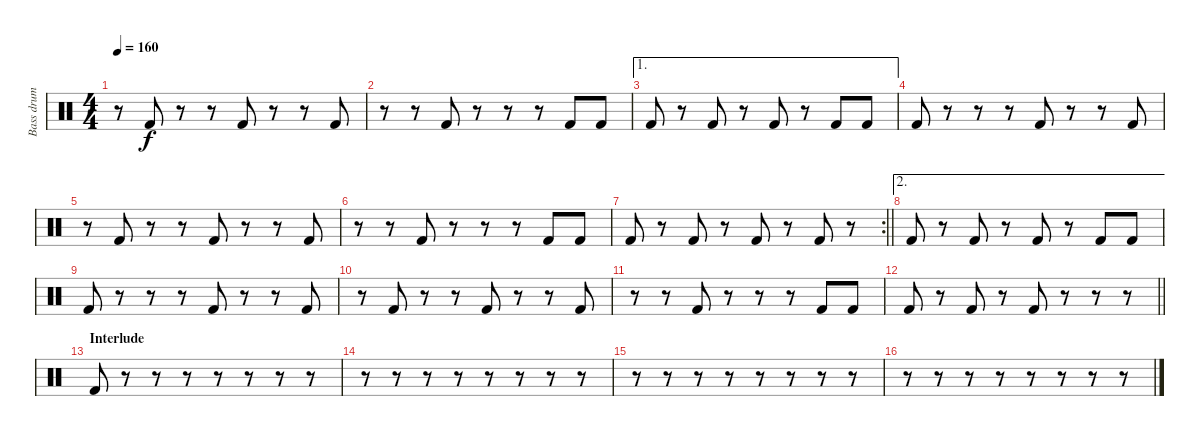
\track ("Bass drum" "Bass drum") {instrument percussion}
\staff {score}
\articulation defaults
\ts (4 4)
\tempo 160
\clef neutral
\ks c
r.8{dy f} "Kick (hit) 2".8 r.8 r.8 "Kick (hit) 2".8 r.8 r.8 "Kick (hit) 2".8 |
r.8 r.8 "Kick (hit) 2".8 r.8 r.8 r.8 "Kick (hit) 2".8 "Kick (hit) 2".8 |
\ae 1 "Kick (hit) 2".8
r.8 "Kick (hit) 2".8 r.8 "Kick (hit) 2".8 r.8 "Kick (hit) 2".8 "Kick (hit) 2".8 |
"Kick (hit) 2".8 r.8 r.8 r.8 "Kick (hit) 2".8 r.8 r.8 "Kick (hit) 2".8 |
r.8 "Kick (hit) 2".8 r.8 r.8 "Kick (hit) 2".8 r.8 r.8 "Kick (hit) 2".8 |
r.8 r.8 "Kick (hit) 2".8 r.8 r.8 r.8 "Kick (hit) 2".8 "Kick (hit) 2".8 |
\rc 2
\barLineRight lightlight "Kick (hit) 2".8
r.8 "Kick (hit) 2".8 r.8 "Kick (hit) 2".8 r.8 "Kick (hit) 2".8 r.8 |
\ae 2 "Kick (hit) 2".8
r.8 "Kick (hit) 2".8 r.8 "Kick (hit) 2".8 r.8 "Kick (hit) 2".8 "Kick (hit) 2".8 |
"Kick (hit) 2".8 r.8 r.8 r.8 "Kick (hit) 2".8 r.8 r.8 "Kick (hit) 2".8 |
r.8 "Kick (hit) 2".8 r.8 r.8 "Kick (hit) 2".8 r.8 r.8 "Kick (hit) 2".8 |
r.8 r.8 "Kick (hit) 2".8 r.8 r.8 r.8 "Kick (hit) 2".8 "Kick (hit) 2".8 |
\barLineRight lightlight "Kick (hit) 2".8
r.8 "Kick (hit) 2".8 r.8 "Kick (hit) 2".8 r.8 r.8 r.8 |
\section ("" "Interlude")
"Kick (hit) 2".8 r.8 r.8 r.8 r.8 r.8 r.8 r.8 |
r.8 r.8 r.8 r.8 r.8 r.8 r.8 r.8 |
r.8 r.8 r.8 r.8 r.8 r.8 r.8 r.8 |
r.8 r.8 r.8 r.8 r.8 r.8 r.8 r.8
